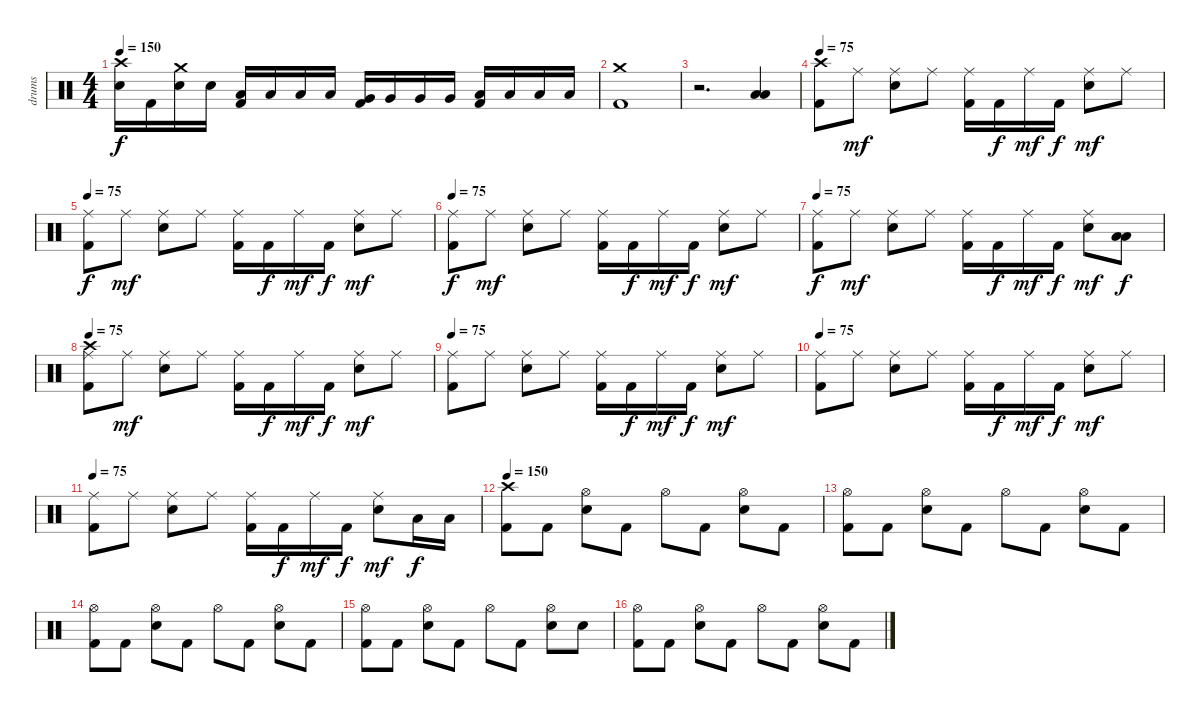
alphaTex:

\track ("drums" "drums") {instrument percussion}
\staff {score}
\articulation defaults
\ts (4 4)
\tempo 150
\clef neutral
\ks c
("Crash high (hit)" "Electric Snare (hit)").16{dy f} "Kick (hit) 2".16 ("Crash medium (hit)" "Electric Snare (hit)").16 "Electric Snare (hit)".16 ("Low Tom (hit)" "Kick (hit) 2").16 "Low Tom (hit)".16 "Low Tom (hit)".16 "Low Tom (hit)".16 ("Very Low Tom (hit)" "Kick (hit) 2").16 "Very Low Tom (hit)".16 "Very Low Tom (hit)".16 "Very Low Tom (hit)".16 ("Low Floor Tom (hit)" "Kick (hit) 2").16 "Low Floor Tom (hit)".16 "Low Floor Tom (hit)".16 "Low Floor Tom (hit)".16 |
("Crash medium (hit)" "Kick (hit) 2").1 |
r.2{d} ("Low Floor Tom (hit)" "Low Tom (hit)").4 |
\tempo 75
("Crash high (hit)" "Kick (hit) 2").8 "Ride (middle)".8{dy mf} ("Ride (middle)" "Electric Snare (hit)").8 "Ride (middle)".8 ("Ride (middle)" "Kick (hit) 2").16 "Kick (hit) 2".16{dy f} "Ride (middle)".16{dy mf} "Kick (hit) 2".16{dy f} ("Ride (middle)" "Electric Snare (hit)").8{dy mf} "Ride (middle)".8 |
\tempo 75
("Ride (middle)" "Kick (hit) 2").8{dy f} "Ride (middle)".8{dy mf} ("Ride (middle)" "Electric Snare (hit)").8 "Ride (middle)".8 ("Ride (middle)" "Kick (hit) 2").16 "Kick (hit) 2".16{dy f} "Ride (middle)".16{dy mf} "Kick (hit) 2".16{dy f} ("Ride (middle)" "Electric Snare (hit)").8{dy mf} "Ride (middle)".8 |
\tempo 75
("Ride (middle)" "Kick (hit) 2").8{dy f} "Ride (middle)".8{dy mf} ("Ride (middle)" "Electric Snare (hit)").8 "Ride (middle)".8 ("Ride (middle)" "Kick (hit) 2").16 "Kick (hit) 2".16{dy f} "Ride (middle)".16{dy mf} "Kick (hit) 2".16{dy f} ("Ride (middle)" "Electric Snare (hit)").8{dy mf} "Ride (middle)".8 |
\tempo 75
("Ride (middle)" "Kick (hit) 2").8{dy f} "Ride (middle)".8{dy mf} ("Ride (middle)" "Electric Snare (hit)").8 "Ride (middle)".8 ("Ride (middle)" "Kick (hit) 2").16 "Kick (hit) 2".16{dy f} "Ride (middle)".16{dy mf} "Kick (hit) 2".16{dy f} ("Ride (middle)" "Electric Snare (hit)").8{dy mf} ("Low Tom (hit)" "Low Floor Tom (hit)").8{dy f} |
\tempo 75
("Ride (middle)" "Crash high (hit)" "Kick (hit) 2").8 "Ride (middle)".8{dy mf} ("Ride (middle)" "Electric Snare (hit)").8 "Ride (middle)".8 ("Ride (middle)" "Kick (hit) 2").16 "Kick (hit) 2".16{dy f} "Ride (middle)".16{dy mf} "Kick (hit) 2".16{dy f} ("Ride (middle)" "Electric Snare (hit)").8{dy mf} "Ride (middle)".8 |
\tempo 75
("Ride (middle)" "Kick (hit) 2").8 "Ride (middle)".8 ("Ride (middle)" "Electric Snare (hit)").8 "Ride (middle)".8 ("Ride (middle)" "Kick (hit) 2").16 "Kick (hit) 2".16{dy f} "Ride (middle)".16{dy mf} "Kick (hit) 2".16{dy f} ("Ride (middle)" "Electric Snare (hit)").8{dy mf} "Ride (middle)".8 |
\tempo 75
("Ride (middle)" "Kick (hit) 2").8 "Ride (middle)".8 ("Ride (middle)" "Electric Snare (hit)").8 "Ride (middle)".8 ("Ride (middle)" "Kick (hit) 2").16 "Kick (hit) 2".16{dy f} "Ride (middle)".16{dy mf} "Kick (hit) 2".16{dy f} ("Ride (middle)" "Electric Snare (hit)").8{dy mf} "Ride (middle)".8 |
\tempo 75
("Ride (middle)" "Kick (hit) 2").8 "Ride (middle)".8 ("Ride (middle)" "Electric Snare (hit)").8 "Ride (middle)".8 ("Ride (middle)" "Kick (hit) 2").16 "Kick (hit) 2".16{dy f} "Ride (middle)".16{dy mf} "Kick (hit) 2".16{dy f} ("Ride (middle)" "Electric Snare (hit)").8{dy mf} "Low Tom (hit)".16{dy f} "Low Floor Tom (hit)".16 |
\tempo 150
("Crash high (hit)" "Kick (hit) 2").8 "Kick (hit) 2".8 ("Hi-Hat (open)" "Electric Snare (hit)").8 "Kick (hit) 2".8 "Hi-Hat (open)".8 "Kick (hit) 2".8 ("Hi-Hat (open)" "Electric Snare (hit)").8 "Kick (hit) 2".8 |
("Hi-Hat (open)" "Kick (hit) 2").8 "Kick (hit) 2".8 ("Hi-Hat (open)" "Electric Snare (hit)").8 "Kick (hit) 2".8 "Hi-Hat (open)".8 "Kick (hit) 2".8 ("Hi-Hat (open)" "Electric Snare (hit)").8 "Kick (hit) 2".8 |
("Hi-Hat (open)" "Kick (hit) 2").8 "Kick (hit) 2".8 ("Hi-Hat (open)" "Electric Snare (hit)").8 "Kick (hit) 2".8 "Hi-Hat (open)".8 "Kick (hit) 2".8 ("Hi-Hat (open)" "Electric Snare (hit)").8 "Kick (hit) 2".8 |
("Hi-Hat (open)" "Kick (hit) 2").8 "Kick (hit) 2".8 ("Hi-Hat (open)" "Electric Snare (hit)").8 "Kick (hit) 2".8 "Hi-Hat (open)".8 "Kick (hit) 2".8 ("Hi-Hat (open)" "Electric Snare (hit)").8 "Electric Snare (hit)".8 |
("Hi-Hat (open)" "Kick (hit) 2").8 "Kick (hit) 2".8 ("Hi-Hat (open)" "Electric Snare (hit)").8 "Kick (hit) 2".8 "Hi-Hat (open)".8 "Kick (hit) 2".8 ("Hi-Hat (open)" "Electric Snare (hit)").8 "Kick (hit) 2".8
